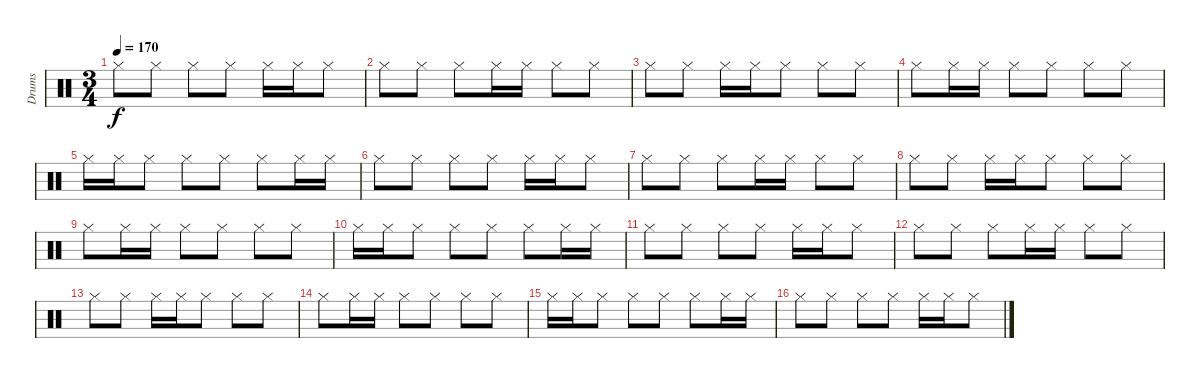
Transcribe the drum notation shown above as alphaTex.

\track ("Drums" "Drums") {instrument percussion}
\staff {score}
\articulation defaults
\ts (3 4)
\tempo 170
\clef neutral
\ks c "Hi-Hat (closed)".8{dy f} "Hi-Hat (closed)".8 "Hi-Hat (closed)".8 "Hi-Hat (closed)".8 "Hi-Hat (closed)".16 "Hi-Hat (closed)".16 "Hi-Hat (closed)".8
|
"Hi-Hat (closed)".8 "Hi-Hat (closed)".8 "Hi-Hat (closed)".8 "Hi-Hat (closed)".16 "Hi-Hat (closed)".16 "Hi-Hat (closed)".8 "Hi-Hat (closed)".8 |
"Hi-Hat (closed)".8 "Hi-Hat (closed)".8 "Hi-Hat (closed)".16 "Hi-Hat (closed)".16 "Hi-Hat (closed)".8 "Hi-Hat (closed)".8 "Hi-Hat (closed)".8 |
"Hi-Hat (closed)".8 "Hi-Hat (closed)".16 "Hi-Hat (closed)".16 "Hi-Hat (closed)".8 "Hi-Hat (closed)".8 "Hi-Hat (closed)".8 "Hi-Hat (closed)".8 |
"Hi-Hat (closed)".16 "Hi-Hat (closed)".16 "Hi-Hat (closed)".8 "Hi-Hat (closed)".8 "Hi-Hat (closed)".8 "Hi-Hat (closed)".8 "Hi-Hat (closed)".16 "Hi-Hat (closed)".16 |
"Hi-Hat (closed)".8 "Hi-Hat (closed)".8 "Hi-Hat (closed)".8 "Hi-Hat (closed)".8 "Hi-Hat (closed)".16 "Hi-Hat (closed)".16 "Hi-Hat (closed)".8 |
"Hi-Hat (closed)".8 "Hi-Hat (closed)".8 "Hi-Hat (closed)".8 "Hi-Hat (closed)".16 "Hi-Hat (closed)".16 "Hi-Hat (closed)".8 "Hi-Hat (closed)".8 |
"Hi-Hat (closed)".8 "Hi-Hat (closed)".8 "Hi-Hat (closed)".16 "Hi-Hat (closed)".16 "Hi-Hat (closed)".8 "Hi-Hat (closed)".8 "Hi-Hat (closed)".8 |
"Hi-Hat (closed)".8 "Hi-Hat (closed)".16 "Hi-Hat (closed)".16 "Hi-Hat (closed)".8 "Hi-Hat (closed)".8 "Hi-Hat (closed)".8 "Hi-Hat (closed)".8 |
"Hi-Hat (closed)".16 "Hi-Hat (closed)".16 "Hi-Hat (closed)".8 "Hi-Hat (closed)".8 "Hi-Hat (closed)".8 "Hi-Hat (closed)".8 "Hi-Hat (closed)".16 "Hi-Hat (closed)".16 |
"Hi-Hat (closed)".8 "Hi-Hat (closed)".8 "Hi-Hat (closed)".8 "Hi-Hat (closed)".8 "Hi-Hat (closed)".16 "Hi-Hat (closed)".16 "Hi-Hat (closed)".8 |
"Hi-Hat (closed)".8 "Hi-Hat (closed)".8 "Hi-Hat (closed)".8 "Hi-Hat (closed)".16 "Hi-Hat (closed)".16 "Hi-Hat (closed)".8 "Hi-Hat (closed)".8 |
"Hi-Hat (closed)".8 "Hi-Hat (closed)".8 "Hi-Hat (closed)".16 "Hi-Hat (closed)".16 "Hi-Hat (closed)".8 "Hi-Hat (closed)".8 "Hi-Hat (closed)".8 |
"Hi-Hat (closed)".8 "Hi-Hat (closed)".16 "Hi-Hat (closed)".16 "Hi-Hat (closed)".8 "Hi-Hat (closed)".8 "Hi-Hat (closed)".8 "Hi-Hat (closed)".8 |
"Hi-Hat (closed)".16 "Hi-Hat (closed)".16 "Hi-Hat (closed)".8 "Hi-Hat (closed)".8 "Hi-Hat (closed)".8 "Hi-Hat (closed)".8 "Hi-Hat (closed)".16 "Hi-Hat (closed)".16 |
"Hi-Hat (closed)".8 "Hi-Hat (closed)".8 "Hi-Hat (closed)".8 "Hi-Hat (closed)".8 "Hi-Hat (closed)".16 "Hi-Hat (closed)".16 "Hi-Hat (closed)".8
